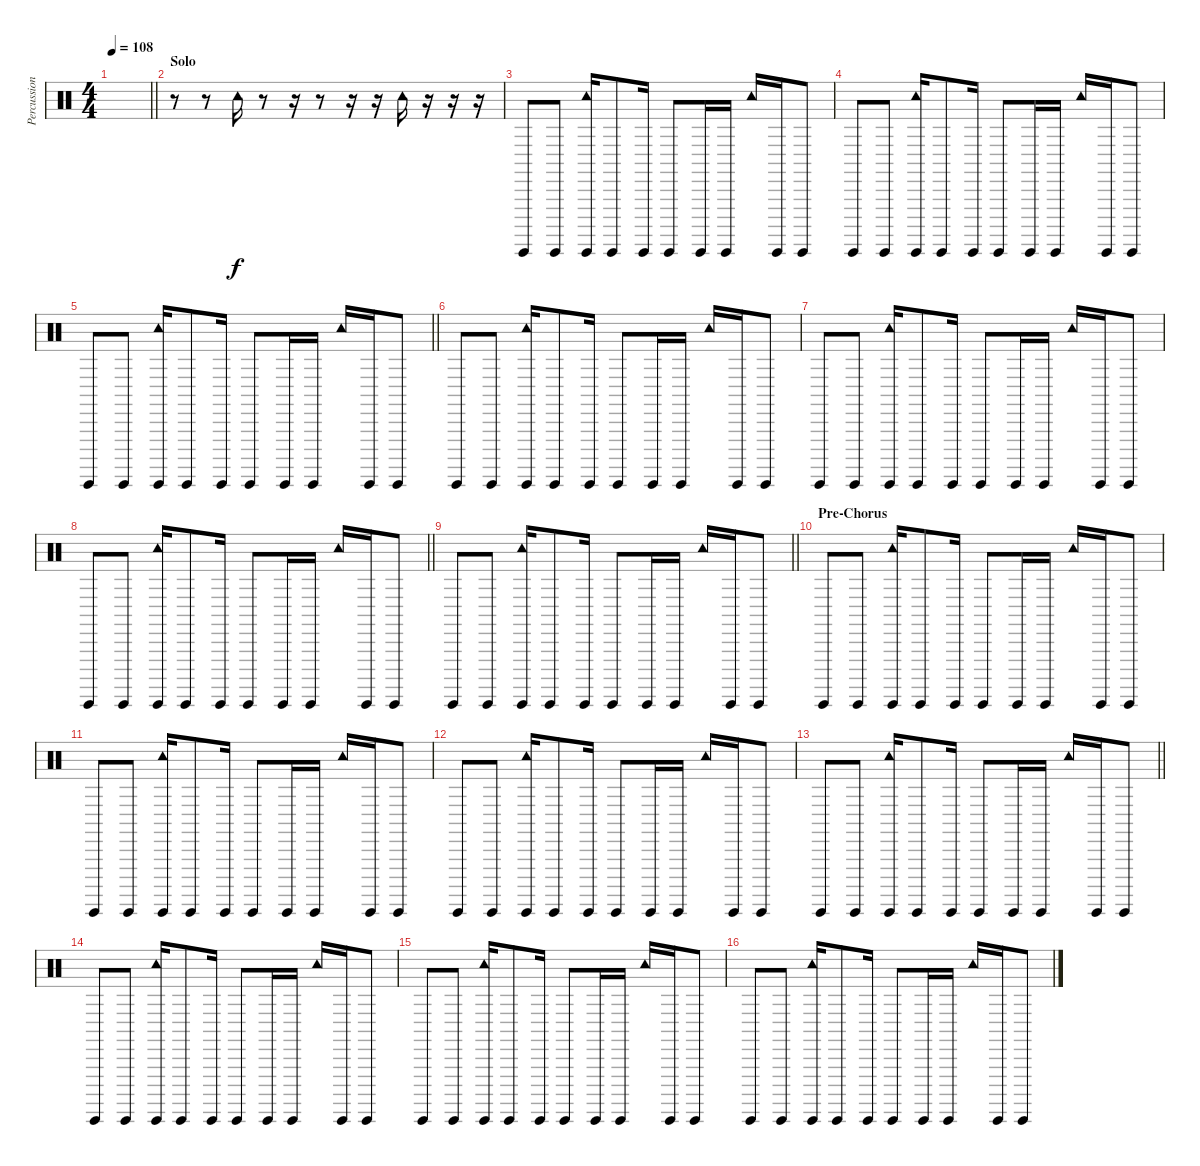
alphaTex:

\track ("Percussion (Chad Smith)" "Percussion") {instrument percussion}
\staff {score}
\articulation defaults
\ts (4 4)
\tempo 108
\clef neutral
\barLineRight lightlight
\ks c
|
\section ("" "Solo")
r.8 r.8 "Tambourine (hit)".16 r.8 r.16 r.8 r.16 r.16 "Tambourine (hit)".16 r.16 r.16 r.16 |
"Guiro (hit)".8 "Guiro (hit)".8 ("Guiro (hit)" "Tambourine (hit)").16 "Guiro (hit)".8 "Guiro (hit)".16 "Guiro (hit)".8 "Guiro (hit)".16 "Guiro (hit)".16 "Tambourine (hit)".16 "Guiro (hit)".16 "Guiro (hit)".8 |
"Guiro (hit)".8 "Guiro (hit)".8 ("Guiro (hit)" "Tambourine (hit)").16 "Guiro (hit)".8 "Guiro (hit)".16 "Guiro (hit)".8 "Guiro (hit)".16 "Guiro (hit)".16 "Tambourine (hit)".16 "Guiro (hit)".16 "Guiro (hit)".8 |
\barLineRight lightlight "Guiro (hit)".8 "Guiro (hit)".8
("Guiro (hit)" "Tambourine (hit)").16 "Guiro (hit)".8 "Guiro (hit)".16 "Guiro (hit)".8 "Guiro (hit)".16 "Guiro (hit)".16 "Tambourine (hit)".16 "Guiro (hit)".16 "Guiro (hit)".8 |
"Guiro (hit)".8 "Guiro (hit)".8 ("Guiro (hit)" "Tambourine (hit)").16 "Guiro (hit)".8 "Guiro (hit)".16 "Guiro (hit)".8 "Guiro (hit)".16 "Guiro (hit)".16 "Tambourine (hit)".16 "Guiro (hit)".16 "Guiro (hit)".8 |
"Guiro (hit)".8 "Guiro (hit)".8 ("Guiro (hit)" "Tambourine (hit)").16 "Guiro (hit)".8 "Guiro (hit)".16 "Guiro (hit)".8 "Guiro (hit)".16 "Guiro (hit)".16 "Tambourine (hit)".16 "Guiro (hit)".16 "Guiro (hit)".8 |
\barLineRight lightlight "Guiro (hit)".8 "Guiro (hit)".8
("Guiro (hit)" "Tambourine (hit)").16 "Guiro (hit)".8 "Guiro (hit)".16 "Guiro (hit)".8 "Guiro (hit)".16 "Guiro (hit)".16 "Tambourine (hit)".16 "Guiro (hit)".16 "Guiro (hit)".8 |
\barLineRight lightlight "Guiro (hit)".8 "Guiro (hit)".8
("Guiro (hit)" "Tambourine (hit)").16 "Guiro (hit)".8 "Guiro (hit)".16 "Guiro (hit)".8 "Guiro (hit)".16 "Guiro (hit)".16 "Tambourine (hit)".16 "Guiro (hit)".16 "Guiro (hit)".8 |
\section ("" "Pre-Chorus")
"Guiro (hit)".8 "Guiro (hit)".8 ("Guiro (hit)" "Tambourine (hit)").16 "Guiro (hit)".8 "Guiro (hit)".16 "Guiro (hit)".8 "Guiro (hit)".16 "Guiro (hit)".16 "Tambourine (hit)".16 "Guiro (hit)".16 "Guiro (hit)".8 |
"Guiro (hit)".8 "Guiro (hit)".8 ("Guiro (hit)" "Tambourine (hit)").16 "Guiro (hit)".8 "Guiro (hit)".16 "Guiro (hit)".8 "Guiro (hit)".16 "Guiro (hit)".16 "Tambourine (hit)".16 "Guiro (hit)".16 "Guiro (hit)".8 |
"Guiro (hit)".8 "Guiro (hit)".8 ("Guiro (hit)" "Tambourine (hit)").16 "Guiro (hit)".8 "Guiro (hit)".16 "Guiro (hit)".8 "Guiro (hit)".16 "Guiro (hit)".16 "Tambourine (hit)".16 "Guiro (hit)".16 "Guiro (hit)".8 |
\barLineRight lightlight "Guiro (hit)".8 "Guiro (hit)".8
("Guiro (hit)" "Tambourine (hit)").16 "Guiro (hit)".8 "Guiro (hit)".16 "Guiro (hit)".8 "Guiro (hit)".16 "Guiro (hit)".16 "Tambourine (hit)".16 "Guiro (hit)".16 "Guiro (hit)".8 |
"Guiro (hit)".8 "Guiro (hit)".8 ("Guiro (hit)" "Tambourine (hit)").16 "Guiro (hit)".8 "Guiro (hit)".16 "Guiro (hit)".8 "Guiro (hit)".16 "Guiro (hit)".16 "Tambourine (hit)".16 "Guiro (hit)".16 "Guiro (hit)".8 |
"Guiro (hit)".8 "Guiro (hit)".8 ("Guiro (hit)" "Tambourine (hit)").16 "Guiro (hit)".8 "Guiro (hit)".16 "Guiro (hit)".8 "Guiro (hit)".16 "Guiro (hit)".16 "Tambourine (hit)".16 "Guiro (hit)".16 "Guiro (hit)".8 |
"Guiro (hit)".8 "Guiro (hit)".8 ("Guiro (hit)" "Tambourine (hit)").16 "Guiro (hit)".8 "Guiro (hit)".16 "Guiro (hit)".8 "Guiro (hit)".16 "Guiro (hit)".16 "Tambourine (hit)".16 "Guiro (hit)".16 "Guiro (hit)".8
